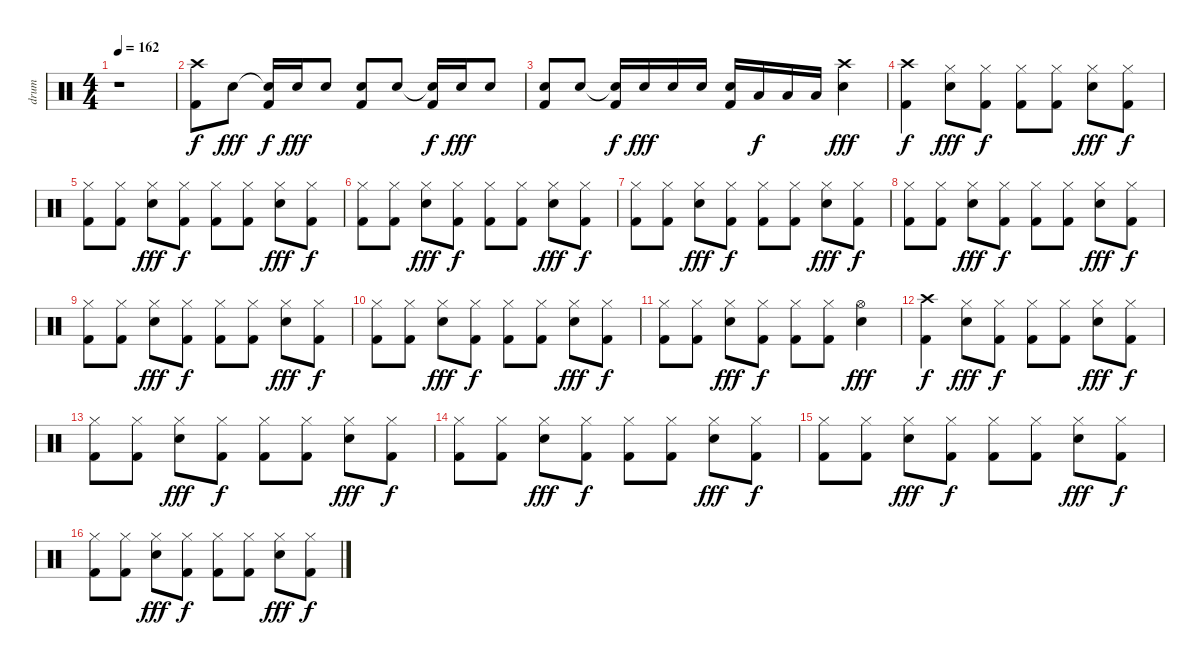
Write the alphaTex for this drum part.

\track ("drum" "drum") {instrument percussion}
\staff {score}
\articulation defaults
\ts (4 4)
\tempo 162
\clef neutral
\ks c
r.1{dy f} |
("Crash high (hit)" "Kick (hit) 2").8 "Electric Snare (hit)".8{dy fff} ("Snare (hit)"{t} "Kick (hit) 2").16{dy f} "Electric Snare (hit)".16{dy fff} "Electric Snare (hit)".8 ("Electric Snare (hit)" "Kick (hit) 2").8 "Electric Snare (hit)".8 ("Snare (hit)"{t} "Kick (hit) 2").16{dy f} "Electric Snare (hit)".16{dy fff} "Electric Snare (hit)".8 |
("Electric Snare (hit)" "Kick (hit) 2").8 "Electric Snare (hit)".8 ("Snare (hit)"{t} "Kick (hit) 2").16{dy f} "Electric Snare (hit)".16{dy fff} "Electric Snare (hit)".16 "Electric Snare (hit)".16 ("Electric Snare (hit)" "Kick (hit) 2").16 "Low Tom (hit)".16{dy f} "Low Floor Tom (hit)".16 "Low Floor Tom (hit)".16 ("Crash high (hit)" "Electric Snare (hit)").4{dy fff} |
("Crash high (hit)" "Kick (hit) 2").4{dy f} ("Hi-Hat (closed)" "Electric Snare (hit)").8{dy fff} ("Hi-Hat (closed)" "Kick (hit) 2").8{dy f} ("Hi-Hat (closed)" "Kick (hit) 2").8 ("Hi-Hat (closed)" "Kick (hit) 2").8 ("Hi-Hat (closed)" "Electric Snare (hit)").8{dy fff} ("Hi-Hat (closed)" "Kick (hit) 2").8{dy f} |
("Hi-Hat (closed)" "Kick (hit) 2").8 ("Hi-Hat (closed)" "Kick (hit) 2").8 ("Hi-Hat (closed)" "Electric Snare (hit)").8{dy fff} ("Hi-Hat (closed)" "Kick (hit) 2").8{dy f} ("Hi-Hat (closed)" "Kick (hit) 2").8 ("Hi-Hat (closed)" "Kick (hit) 2").8 ("Hi-Hat (closed)" "Electric Snare (hit)").8{dy fff} ("Hi-Hat (closed)" "Kick (hit) 2").8{dy f} |
("Hi-Hat (closed)" "Kick (hit) 2").8 ("Hi-Hat (closed)" "Kick (hit) 2").8 ("Hi-Hat (closed)" "Electric Snare (hit)").8{dy fff} ("Hi-Hat (closed)" "Kick (hit) 2").8{dy f} ("Hi-Hat (closed)" "Kick (hit) 2").8 ("Hi-Hat (closed)" "Kick (hit) 2").8 ("Hi-Hat (closed)" "Electric Snare (hit)").8{dy fff} ("Hi-Hat (closed)" "Kick (hit) 2").8{dy f} |
("Hi-Hat (closed)" "Kick (hit) 2").8 ("Hi-Hat (closed)" "Kick (hit) 2").8 ("Hi-Hat (closed)" "Electric Snare (hit)").8{dy fff} ("Hi-Hat (closed)" "Kick (hit) 2").8{dy f} ("Hi-Hat (closed)" "Kick (hit) 2").8 ("Hi-Hat (closed)" "Kick (hit) 2").8 ("Hi-Hat (closed)" "Electric Snare (hit)").8{dy fff} ("Hi-Hat (closed)" "Kick (hit) 2").8{dy f} |
("Hi-Hat (closed)" "Kick (hit) 2").8 ("Hi-Hat (closed)" "Kick (hit) 2").8 ("Hi-Hat (closed)" "Electric Snare (hit)").8{dy fff} ("Hi-Hat (closed)" "Kick (hit) 2").8{dy f} ("Hi-Hat (closed)" "Kick (hit) 2").8 ("Hi-Hat (closed)" "Kick (hit) 2").8 ("Hi-Hat (closed)" "Electric Snare (hit)").8{dy fff} ("Hi-Hat (closed)" "Kick (hit) 2").8{dy f} |
("Hi-Hat (closed)" "Kick (hit) 2").8 ("Hi-Hat (closed)" "Kick (hit) 2").8 ("Hi-Hat (closed)" "Electric Snare (hit)").8{dy fff} ("Hi-Hat (closed)" "Kick (hit) 2").8{dy f} ("Hi-Hat (closed)" "Kick (hit) 2").8 ("Hi-Hat (closed)" "Kick (hit) 2").8 ("Hi-Hat (closed)" "Electric Snare (hit)").8{dy fff} ("Hi-Hat (closed)" "Kick (hit) 2").8{dy f} |
("Hi-Hat (closed)" "Kick (hit) 2").8 ("Hi-Hat (closed)" "Kick (hit) 2").8 ("Hi-Hat (closed)" "Electric Snare (hit)").8{dy fff} ("Hi-Hat (closed)" "Kick (hit) 2").8{dy f} ("Hi-Hat (closed)" "Kick (hit) 2").8 ("Hi-Hat (closed)" "Kick (hit) 2").8 ("Hi-Hat (closed)" "Electric Snare (hit)").8{dy fff} ("Hi-Hat (closed)" "Kick (hit) 2").8{dy f} |
("Hi-Hat (closed)" "Kick (hit) 2").8 ("Hi-Hat (closed)" "Kick (hit) 2").8 ("Hi-Hat (closed)" "Electric Snare (hit)").8{dy fff} ("Hi-Hat (closed)" "Kick (hit) 2").8{dy f} ("Hi-Hat (closed)" "Kick (hit) 2").8 ("Hi-Hat (closed)" "Kick (hit) 2").8 ("Hi-Hat (open)" "Electric Snare (hit)").4{dy fff} |
("Crash high (hit)" "Kick (hit) 2").4{dy f} ("Hi-Hat (closed)" "Electric Snare (hit)").8{dy fff} ("Hi-Hat (closed)" "Kick (hit) 2").8{dy f} ("Hi-Hat (closed)" "Kick (hit) 2").8 ("Hi-Hat (closed)" "Kick (hit) 2").8 ("Hi-Hat (closed)" "Electric Snare (hit)").8{dy fff} ("Hi-Hat (closed)" "Kick (hit) 2").8{dy f} |
("Hi-Hat (closed)" "Kick (hit) 2").8 ("Hi-Hat (closed)" "Kick (hit) 2").8 ("Hi-Hat (closed)" "Electric Snare (hit)").8{dy fff} ("Hi-Hat (closed)" "Kick (hit) 2").8{dy f} ("Hi-Hat (closed)" "Kick (hit) 2").8 ("Hi-Hat (closed)" "Kick (hit) 2").8 ("Hi-Hat (closed)" "Electric Snare (hit)").8{dy fff} ("Hi-Hat (closed)" "Kick (hit) 2").8{dy f} |
("Hi-Hat (closed)" "Kick (hit) 2").8 ("Hi-Hat (closed)" "Kick (hit) 2").8 ("Hi-Hat (closed)" "Electric Snare (hit)").8{dy fff} ("Hi-Hat (closed)" "Kick (hit) 2").8{dy f} ("Hi-Hat (closed)" "Kick (hit) 2").8 ("Hi-Hat (closed)" "Kick (hit) 2").8 ("Hi-Hat (closed)" "Electric Snare (hit)").8{dy fff} ("Hi-Hat (closed)" "Kick (hit) 2").8{dy f} |
("Hi-Hat (closed)" "Kick (hit) 2").8 ("Hi-Hat (closed)" "Kick (hit) 2").8 ("Hi-Hat (closed)" "Electric Snare (hit)").8{dy fff} ("Hi-Hat (closed)" "Kick (hit) 2").8{dy f} ("Hi-Hat (closed)" "Kick (hit) 2").8 ("Hi-Hat (closed)" "Kick (hit) 2").8 ("Hi-Hat (closed)" "Electric Snare (hit)").8{dy fff} ("Hi-Hat (closed)" "Kick (hit) 2").8{dy f} |
("Hi-Hat (closed)" "Kick (hit) 2").8 ("Hi-Hat (closed)" "Kick (hit) 2").8 ("Hi-Hat (closed)" "Electric Snare (hit)").8{dy fff} ("Hi-Hat (closed)" "Kick (hit) 2").8{dy f} ("Hi-Hat (closed)" "Kick (hit) 2").8 ("Hi-Hat (closed)" "Kick (hit) 2").8 ("Hi-Hat (closed)" "Electric Snare (hit)").8{dy fff} ("Hi-Hat (closed)" "Kick (hit) 2").8{dy f}
